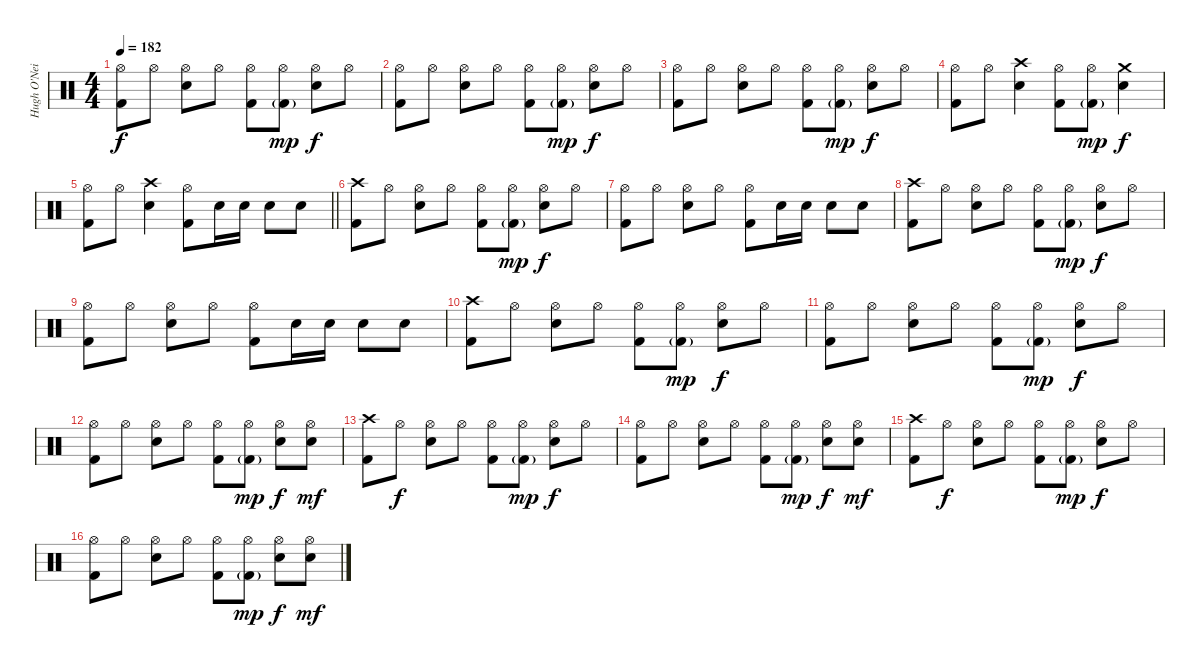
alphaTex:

\track ("Hugh O'Neil" "Hugh O'Nei") {instrument percussion}
\staff {score}
\articulation defaults
\ts (4 4)
\tempo 182
\clef neutral
\ks c
("Hi-Hat (open)" "Kick (hit) 2").8{dy f} "Hi-Hat (open)".8 ("Hi-Hat (open)" "Electric Snare (hit)").8 "Hi-Hat (open)".8 ("Hi-Hat (open)" "Kick (hit) 2").8 ("Hi-Hat (open)" "Kick (hit) 2"{g}).8{dy mp} ("Hi-Hat (open)" "Electric Snare (hit)").8{dy f} "Hi-Hat (open)".8 |
("Hi-Hat (open)" "Kick (hit) 2").8 "Hi-Hat (open)".8 ("Hi-Hat (open)" "Electric Snare (hit)").8 "Hi-Hat (open)".8 ("Hi-Hat (open)" "Kick (hit) 2").8 ("Hi-Hat (open)" "Kick (hit) 2"{g}).8{dy mp} ("Hi-Hat (open)" "Electric Snare (hit)").8{dy f} "Hi-Hat (open)".8 |
("Hi-Hat (open)" "Kick (hit) 2").8 "Hi-Hat (open)".8 ("Hi-Hat (open)" "Electric Snare (hit)").8 "Hi-Hat (open)".8 ("Hi-Hat (open)" "Kick (hit) 2").8 ("Hi-Hat (open)" "Kick (hit) 2"{g}).8{dy mp} ("Hi-Hat (open)" "Electric Snare (hit)").8{dy f} "Hi-Hat (open)".8 |
("Hi-Hat (open)" "Kick (hit) 2").8 "Hi-Hat (open)".8 ("Crash high (hit)" "Electric Snare (hit)").4 ("Hi-Hat (open)" "Kick (hit) 2").8 ("Hi-Hat (open)" "Kick (hit) 2"{g}).8{dy mp} ("Crash medium (hit)" "Electric Snare (hit)").4{dy f} |
\barLineRight lightlight
("Hi-Hat (open)" "Kick (hit) 2").8 "Hi-Hat (open)".8 ("Crash high (hit)" "Electric Snare (hit)").4 ("Hi-Hat (open)" "Kick (hit) 2").8 "Electric Snare (hit)".16 "Electric Snare (hit)".16 "Electric Snare (hit)".8 "Electric Snare (hit)".8 |
\section ("" "")
("Crash high (hit)" "Kick (hit) 2").8 "Hi-Hat (open)".8 ("Hi-Hat (open)" "Electric Snare (hit)").8 "Hi-Hat (open)".8 ("Hi-Hat (open)" "Kick (hit) 2").8 ("Hi-Hat (open)" "Kick (hit) 2"{g}).8{dy mp} ("Hi-Hat (open)" "Electric Snare (hit)").8{dy f} "Hi-Hat (open)".8 |
("Hi-Hat (open)" "Kick (hit) 2").8 "Hi-Hat (open)".8 ("Hi-Hat (open)" "Electric Snare (hit)").8 "Hi-Hat (open)".8 ("Hi-Hat (open)" "Kick (hit) 2").8 "Electric Snare (hit)".16 "Electric Snare (hit)".16 "Electric Snare (hit)".8 "Electric Snare (hit)".8 |
("Crash high (hit)" "Kick (hit) 2").8 "Hi-Hat (open)".8 ("Hi-Hat (open)" "Electric Snare (hit)").8 "Hi-Hat (open)".8 ("Hi-Hat (open)" "Kick (hit) 2").8 ("Hi-Hat (open)" "Kick (hit) 2"{g}).8{dy mp} ("Hi-Hat (open)" "Electric Snare (hit)").8{dy f} "Hi-Hat (open)".8 |
("Hi-Hat (open)" "Kick (hit) 2").8 "Hi-Hat (open)".8 ("Hi-Hat (open)" "Electric Snare (hit)").8 "Hi-Hat (open)".8 ("Hi-Hat (open)" "Kick (hit) 2").8 "Electric Snare (hit)".16 "Electric Snare (hit)".16 "Electric Snare (hit)".8 "Electric Snare (hit)".8 |
("Crash high (hit)" "Kick (hit) 2").8 "Hi-Hat (open)".8 ("Hi-Hat (open)" "Electric Snare (hit)").8 "Hi-Hat (open)".8 ("Hi-Hat (open)" "Kick (hit) 2").8 ("Hi-Hat (open)" "Kick (hit) 2"{g}).8{dy mp} ("Hi-Hat (open)" "Electric Snare (hit)").8{dy f} "Hi-Hat (open)".8 |
("Hi-Hat (open)" "Kick (hit) 2").8 "Hi-Hat (open)".8 ("Hi-Hat (open)" "Electric Snare (hit)").8 "Hi-Hat (open)".8 ("Hi-Hat (open)" "Kick (hit) 2").8 ("Hi-Hat (open)" "Kick (hit) 2"{g}).8{dy mp} ("Hi-Hat (open)" "Electric Snare (hit)").8{dy f} "Hi-Hat (open)".8 |
("Hi-Hat (open)" "Kick (hit) 2").8 "Hi-Hat (open)".8 ("Hi-Hat (open)" "Electric Snare (hit)").8 "Hi-Hat (open)".8 ("Hi-Hat (open)" "Kick (hit) 2").8 ("Hi-Hat (open)" "Kick (hit) 2"{g}).8{dy mp} ("Hi-Hat (open)" "Electric Snare (hit)").8{dy f} ("Hi-Hat (open)" "Electric Snare (hit)").8{dy mf} |
("Crash high (hit)" "Kick (hit) 2").8 "Hi-Hat (open)".8{dy f} ("Hi-Hat (open)" "Electric Snare (hit)").8 "Hi-Hat (open)".8 ("Hi-Hat (open)" "Kick (hit) 2").8 ("Hi-Hat (open)" "Kick (hit) 2"{g}).8{dy mp} ("Hi-Hat (open)" "Electric Snare (hit)").8{dy f} "Hi-Hat (open)".8 |
("Hi-Hat (open)" "Kick (hit) 2").8 "Hi-Hat (open)".8 ("Hi-Hat (open)" "Electric Snare (hit)").8 "Hi-Hat (open)".8 ("Hi-Hat (open)" "Kick (hit) 2").8 ("Hi-Hat (open)" "Kick (hit) 2"{g}).8{dy mp} ("Hi-Hat (open)" "Electric Snare (hit)").8{dy f} ("Hi-Hat (open)" "Electric Snare (hit)").8{dy mf} |
("Crash high (hit)" "Kick (hit) 2").8 "Hi-Hat (open)".8{dy f} ("Hi-Hat (open)" "Electric Snare (hit)").8 "Hi-Hat (open)".8 ("Hi-Hat (open)" "Kick (hit) 2").8 ("Hi-Hat (open)" "Kick (hit) 2"{g}).8{dy mp} ("Hi-Hat (open)" "Electric Snare (hit)").8{dy f} "Hi-Hat (open)".8 |
("Hi-Hat (open)" "Kick (hit) 2").8 "Hi-Hat (open)".8 ("Hi-Hat (open)" "Electric Snare (hit)").8 "Hi-Hat (open)".8 ("Hi-Hat (open)" "Kick (hit) 2").8 ("Hi-Hat (open)" "Kick (hit) 2"{g}).8{dy mp} ("Hi-Hat (open)" "Electric Snare (hit)").8{dy f} ("Hi-Hat (open)" "Electric Snare (hit)").8{dy mf}
